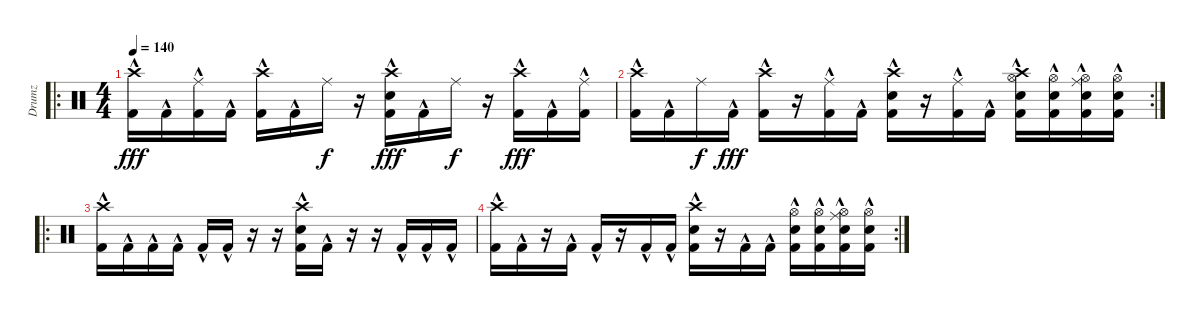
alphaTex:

\track ("Drumz" "Drumz") {instrument percussion}
\staff {score}
\articulation defaults
\ro
\ts (4 4)
\tempo 140
\clef neutral
\ks c
("Crash high (hit)" "Kick (hit) 2"{hac}).16{dy fff} "Kick (hit) 2"{hac}.16 ("Ride (middle)" "Kick (hit) 2"{hac}).16 "Kick (hit) 2"{hac}.16 ("Crash high (hit)" "Kick (hit) 2"{hac}).16 "Kick (hit) 2"{hac}.16 "Ride (middle)".16{dy f} r.16 ("Crash high (hit)" "Electric Snare (hit)" "Kick (hit) 2"{hac}).16{dy fff} "Kick (hit) 2"{hac}.16 "Ride (middle)".16{dy f} r.16 ("Crash high (hit)" "Kick (hit) 2"{hac}).16{dy fff} "Kick (hit) 2"{hac}.16 ("Ride (middle)" "Kick (hit) 2"{hac}).16 |
\rc 2
("Crash high (hit)" "Kick (hit) 2"{hac}).16 "Kick (hit) 2"{hac}.16 "Ride (middle)".16{dy f} "Kick (hit) 2"{hac}.16{dy fff} ("Crash high (hit)" "Kick (hit) 2"{hac}).16 r.16 ("Ride (middle)" "Kick (hit) 2"{hac}).16 "Kick (hit) 2"{hac}.16 ("Crash high (hit)" "Electric Snare (hit)" "Kick (hit) 2"{hac}).16 r.16 ("Ride (middle)" "Kick (hit) 2"{hac}).16 "Kick (hit) 2"{hac}.16 ("Crash high (hit)" "Hi-Hat (open)" "Electric Snare (hit)" "Kick (hit) 2"{hac}).16 ("Hi-Hat (open)" "Electric Snare (hit)" "Kick (hit) 2"{hac}).16 ("Ride (middle)" "Hi-Hat (open)" "Electric Snare (hit)" "Kick (hit) 2"{hac}).16 ("Hi-Hat (open)" "Electric Snare (hit)" "Kick (hit) 2"{hac}).16 |
\ro
("Crash high (hit)" "Kick (hit) 2"{hac}).16 "Kick (hit) 2"{hac}.16 "Kick (hit) 2"{hac}.16 "Kick (hit) 2"{hac}.16 "Kick (hit) 2"{hac}.16 "Kick (hit) 2"{hac}.16 r.16 r.16 ("Crash high (hit)" "Electric Snare (hit)" "Kick (hit) 2"{hac}).16 "Kick (hit) 2"{hac}.16 r.16 r.16 "Kick (hit) 2"{hac}.16 "Kick (hit) 2"{hac}.16 "Kick (hit) 2"{hac}.16 |
\rc 2
("Crash high (hit)" "Kick (hit) 2"{hac}).16 "Kick (hit) 2"{hac}.16 r.16 "Kick (hit) 2"{hac}.16 "Kick (hit) 2"{hac}.16 r.16 "Kick (hit) 2"{hac}.16 "Kick (hit) 2"{hac}.16 ("Crash high (hit)" "Electric Snare (hit)" "Kick (hit) 2"{hac}).16 r.16 "Kick (hit) 2"{hac}.16 "Kick (hit) 2"{hac}.16 ("Hi-Hat (open)" "Electric Snare (hit)" "Kick (hit) 2"{hac}).16 ("Hi-Hat (open)" "Electric Snare (hit)" "Kick (hit) 2"{hac}).16 ("Ride (middle)" "Hi-Hat (open)" "Electric Snare (hit)" "Kick (hit) 2"{hac}).16 ("Hi-Hat (open)" "Electric Snare (hit)" "Kick (hit) 2"{hac}).16
